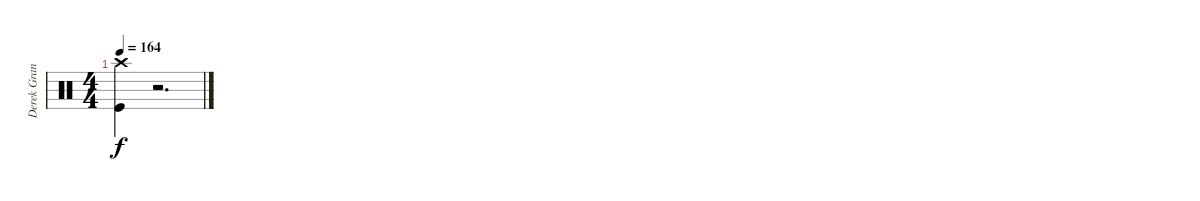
\track ("Derek Grant - Drums" "Derek Gran") {instrument percussion}
\staff {score}
\articulation defaults
\ts (4 4)
\tempo 164
\clef neutral
\ks c
("Crash high (hit)" "Kick (hit)").4{dy f} r.2{d}
